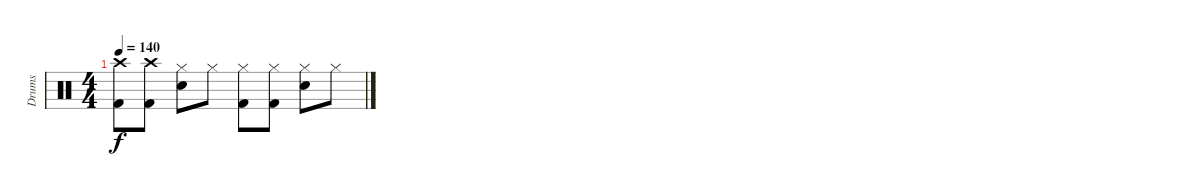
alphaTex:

\track ("Drums" "Drums") {instrument percussion}
\staff {score}
\articulation defaults
\ts (4 4)
\tempo 140
\clef neutral
\ks c
("Crash high (hit)" "Kick (hit) 2").8{dy f volume 0} ("Crash high (hit)" "Kick (hit) 2").8 ("Hi-Hat (closed)" "Snare (hit) 2").8 "Hi-Hat (closed)".8 ("Hi-Hat (closed)" "Kick (hit) 2").8 ("Hi-Hat (closed)" "Kick (hit) 2").8 ("Hi-Hat (closed)" "Snare (hit) 2").8 "Hi-Hat (closed)".8
